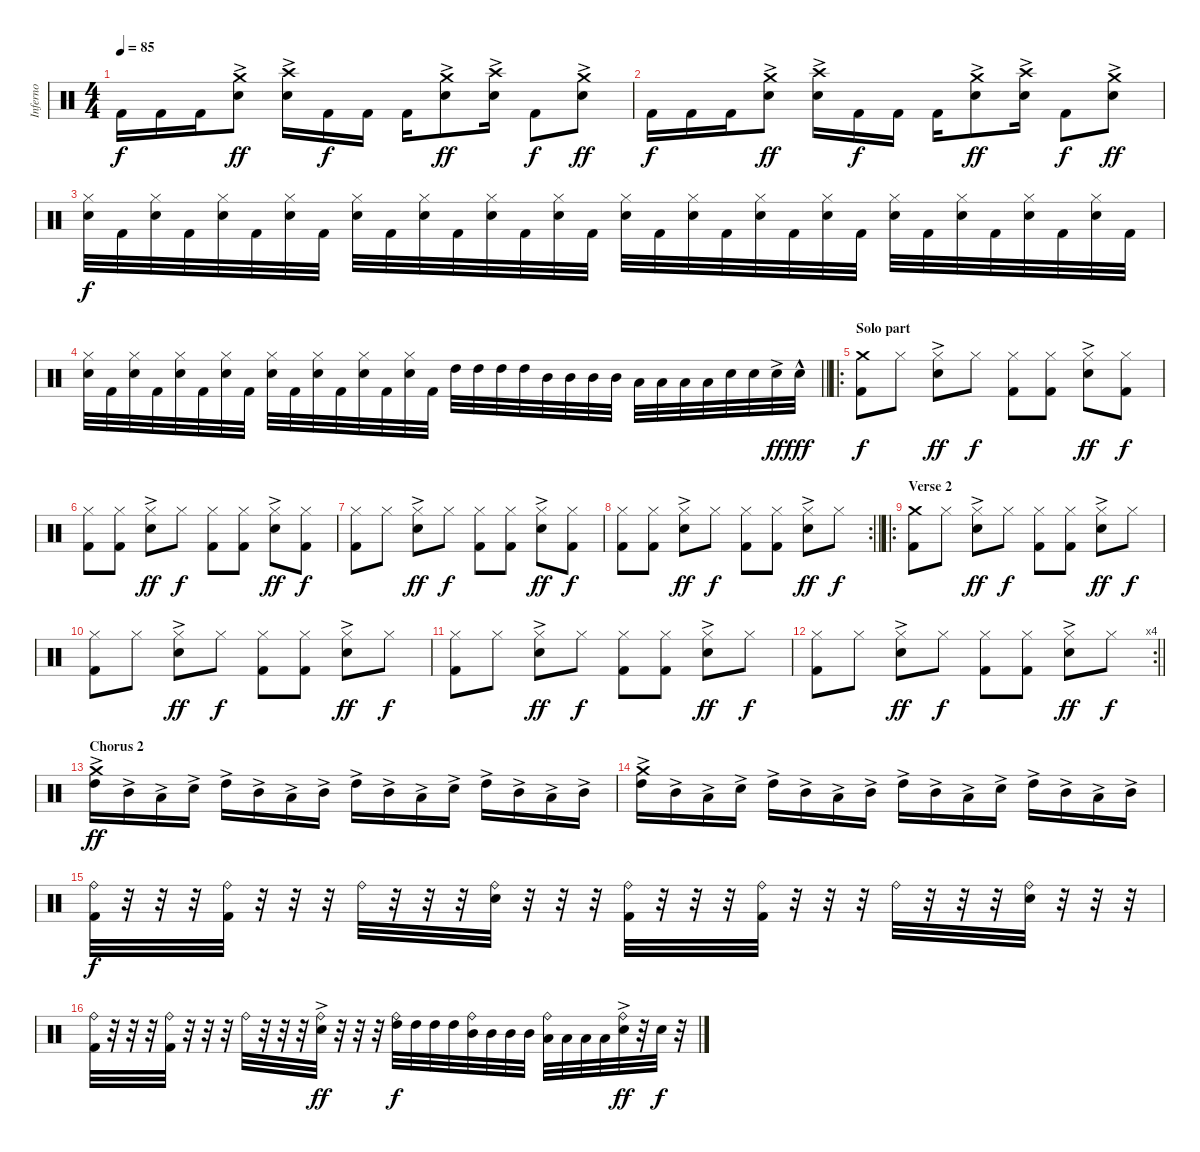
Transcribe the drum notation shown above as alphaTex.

\track ("Inferno" "Inferno") {instrument percussion}
\staff {score}
\articulation defaults
\ts (4 4)
\tempo 85
\clef neutral
\ks c "Kick (hit) 2".16{dy f} "Kick (hit) 2".16 "Kick (hit) 2".16
("Crash medium (hit)" "Electric Snare (hit)"{ac}).8{dy ff} ("Crash high (hit)" "Electric Snare (hit)"{ac}).16 "Kick (hit) 2".16{dy f} "Kick (hit) 2".16 "Kick (hit) 2".16 ("Crash medium (hit)" "Electric Snare (hit)"{ac}).8{dy ff} ("Crash high (hit)" "Electric Snare (hit)"{ac}).16 "Kick (hit) 2".8{dy f} ("Crash medium (hit)" "Electric Snare (hit)"{ac}).8{dy ff} |
"Kick (hit) 2".16{dy f} "Kick (hit) 2".16 "Kick (hit) 2".16 ("Crash medium (hit)" "Electric Snare (hit)"{ac}).8{dy ff} ("Crash high (hit)" "Electric Snare (hit)"{ac}).16 "Kick (hit) 2".16{dy f} "Kick (hit) 2".16 "Kick (hit) 2".16 ("Crash medium (hit)" "Electric Snare (hit)"{ac}).8{dy ff} ("Crash high (hit)" "Electric Snare (hit)"{ac}).16 "Kick (hit) 2".8{dy f} ("Crash medium (hit)" "Electric Snare (hit)"{ac}).8{dy ff} |
("Hi-Hat (closed)" "Electric Snare (hit)").32{dy f} "Kick (hit) 2".32 ("Hi-Hat (closed)" "Electric Snare (hit)").32 "Kick (hit) 2".32 ("Hi-Hat (closed)" "Electric Snare (hit)").32 "Kick (hit) 2".32 ("Hi-Hat (closed)" "Electric Snare (hit)").32 "Kick (hit) 2".32 ("Hi-Hat (closed)" "Electric Snare (hit)").32 "Kick (hit) 2".32 ("Hi-Hat (closed)" "Electric Snare (hit)").32 "Kick (hit) 2".32 ("Hi-Hat (closed)" "Electric Snare (hit)").32 "Kick (hit) 2".32 ("Hi-Hat (closed)" "Electric Snare (hit)").32 "Kick (hit) 2".32 ("Hi-Hat (closed)" "Electric Snare (hit)").32 "Kick (hit) 2".32 ("Hi-Hat (closed)" "Electric Snare (hit)").32 "Kick (hit) 2".32 ("Hi-Hat (closed)" "Electric Snare (hit)").32 "Kick (hit) 2".32 ("Hi-Hat (closed)" "Electric Snare (hit)").32 "Kick (hit) 2".32 ("Hi-Hat (closed)" "Electric Snare (hit)").32 "Kick (hit) 2".32 ("Hi-Hat (closed)" "Electric Snare (hit)").32 "Kick (hit) 2".32 ("Hi-Hat (closed)" "Electric Snare (hit)").32 "Kick (hit) 2".32 ("Hi-Hat (closed)" "Electric Snare (hit)").32 "Kick (hit) 2".32 |
\barLineRight lightlight
("Hi-Hat (closed)" "Electric Snare (hit)").32 "Kick (hit) 2".32 ("Hi-Hat (closed)" "Electric Snare (hit)").32 "Kick (hit) 2".32 ("Hi-Hat (closed)" "Electric Snare (hit)").32 "Kick (hit) 2".32 ("Hi-Hat (closed)" "Electric Snare (hit)").32 "Kick (hit) 2".32 ("Hi-Hat (closed)" "Electric Snare (hit)").32 "Kick (hit) 2".32 ("Hi-Hat (closed)" "Electric Snare (hit)").32 "Kick (hit) 2".32 ("Hi-Hat (closed)" "Electric Snare (hit)").32 "Kick (hit) 2".32 ("Hi-Hat (closed)" "Electric Snare (hit)").32 "Kick (hit) 2".32 "High Tom (hit)".32 "High Tom (hit)".32 "High Tom (hit)".32 "High Tom (hit)".32 "Mid Tom (hit)".32 "Mid Tom (hit)".32 "Mid Tom (hit)".32 "Mid Tom (hit)".32 "Low Tom (hit)".32 "Low Tom (hit)".32 "Low Tom (hit)".32 "Low Tom (hit)".32 "Electric Snare (hit)".32 "Electric Snare (hit)".32 "Electric Snare (hit)"{ac}.32{dy ff} "Electric Snare (hit)"{hac}.32{dy fff} |
\ro
\section ("" "Solo part")
("Crash medium (hit)" "Kick (hit) 2").8{dy f} "Hi-Hat (closed)".8 ("Hi-Hat (closed)" "Electric Snare (hit)"{ac}).8{dy ff} "Hi-Hat (closed)".8{dy f} ("Hi-Hat (closed)" "Kick (hit) 2").8 ("Hi-Hat (closed)" "Kick (hit) 2").8 ("Hi-Hat (closed)" "Electric Snare (hit)"{ac}).8{dy ff} ("Hi-Hat (closed)" "Kick (hit) 2").8{dy f} |
("Hi-Hat (closed)" "Kick (hit) 2").8 ("Hi-Hat (closed)" "Kick (hit) 2").8 ("Hi-Hat (closed)" "Electric Snare (hit)"{ac}).8{dy ff} "Hi-Hat (closed)".8{dy f} ("Hi-Hat (closed)" "Kick (hit) 2").8 ("Hi-Hat (closed)" "Kick (hit) 2").8 ("Hi-Hat (closed)" "Electric Snare (hit)"{ac}).8{dy ff} ("Hi-Hat (closed)" "Kick (hit) 2").8{dy f} |
("Hi-Hat (closed)" "Kick (hit) 2").8 "Hi-Hat (closed)".8 ("Hi-Hat (closed)" "Electric Snare (hit)"{ac}).8{dy ff} "Hi-Hat (closed)".8{dy f} ("Hi-Hat (closed)" "Kick (hit) 2").8 ("Hi-Hat (closed)" "Kick (hit) 2").8 ("Hi-Hat (closed)" "Electric Snare (hit)"{ac}).8{dy ff} ("Hi-Hat (closed)" "Kick (hit) 2").8{dy f} |
\rc 2
\barLineRight lightlight
("Hi-Hat (closed)" "Kick (hit) 2").8 ("Hi-Hat (closed)" "Kick (hit) 2").8 ("Hi-Hat (closed)" "Electric Snare (hit)"{ac}).8{dy ff} "Hi-Hat (closed)".8{dy f} ("Hi-Hat (closed)" "Kick (hit) 2").8 ("Hi-Hat (closed)" "Kick (hit) 2").8 ("Hi-Hat (closed)" "Electric Snare (hit)"{ac}).8{dy ff} "Hi-Hat (closed)".8{dy f} |
\ro
\section ("" "Verse 2")
("Crash medium (hit)" "Kick (hit) 2").8 "Hi-Hat (closed)".8 ("Hi-Hat (closed)" "Electric Snare (hit)"{ac}).8{dy ff} "Hi-Hat (closed)".8{dy f} ("Hi-Hat (closed)" "Kick (hit) 2").8 ("Hi-Hat (closed)" "Kick (hit) 2").8 ("Hi-Hat (closed)" "Electric Snare (hit)"{ac}).8{dy ff} "Hi-Hat (closed)".8{dy f} |
("Hi-Hat (closed)" "Kick (hit) 2").8 "Hi-Hat (closed)".8 ("Hi-Hat (closed)" "Electric Snare (hit)"{ac}).8{dy ff} "Hi-Hat (closed)".8{dy f} ("Hi-Hat (closed)" "Kick (hit) 2").8 ("Hi-Hat (closed)" "Kick (hit) 2").8 ("Hi-Hat (closed)" "Electric Snare (hit)"{ac}).8{dy ff} "Hi-Hat (closed)".8{dy f} |
("Hi-Hat (closed)" "Kick (hit) 2").8 "Hi-Hat (closed)".8 ("Hi-Hat (closed)" "Electric Snare (hit)"{ac}).8{dy ff} "Hi-Hat (closed)".8{dy f} ("Hi-Hat (closed)" "Kick (hit) 2").8 ("Hi-Hat (closed)" "Kick (hit) 2").8 ("Hi-Hat (closed)" "Electric Snare (hit)"{ac}).8{dy ff} "Hi-Hat (closed)".8{dy f} |
\rc 4
\barLineRight lightlight
("Hi-Hat (closed)" "Kick (hit) 2").8 "Hi-Hat (closed)".8 ("Hi-Hat (closed)" "Electric Snare (hit)"{ac}).8{dy ff} "Hi-Hat (closed)".8{dy f} ("Hi-Hat (closed)" "Kick (hit) 2").8 ("Hi-Hat (closed)" "Kick (hit) 2").8 ("Hi-Hat (closed)" "Electric Snare (hit)"{ac}).8{dy ff} "Hi-Hat (closed)".8{dy f} |
\section ("" "Chorus 2")
("High Tom (hit)"{ac} "Crash medium (hit)").16{dy ff} "Mid Tom (hit)"{ac}.16 "Low Tom (hit)"{ac}.16 "Electric Snare (hit)"{ac}.16 "High Tom (hit)"{ac}.16 "Mid Tom (hit)"{ac}.16 "Low Tom (hit)"{ac}.16 "Mid Tom (hit)"{ac}.16 "High Tom (hit)"{ac}.16 "Mid Tom (hit)"{ac}.16 "Low Tom (hit)"{ac}.16 "Electric Snare (hit)"{ac}.16 "High Tom (hit)"{ac}.16 "Mid Tom (hit)"{ac}.16 "Low Tom (hit)"{ac}.16 "Mid Tom (hit)"{ac}.16 |
("High Tom (hit)"{ac} "Crash medium (hit)").16 "Mid Tom (hit)"{ac}.16 "Low Tom (hit)"{ac}.16 "Electric Snare (hit)"{ac}.16 "High Tom (hit)"{ac}.16 "Mid Tom (hit)"{ac}.16 "Low Tom (hit)"{ac}.16 "Mid Tom (hit)"{ac}.16 "High Tom (hit)"{ac}.16 "Mid Tom (hit)"{ac}.16 "Low Tom (hit)"{ac}.16 "Electric Snare (hit)"{ac}.16 "High Tom (hit)"{ac}.16 "Mid Tom (hit)"{ac}.16 "Low Tom (hit)"{ac}.16 "Mid Tom (hit)"{ac}.16 |
("Kick (hit) 2" "Ride (bell)").32{dy f} r.32 r.32 r.32 ("Kick (hit) 2" "Ride (bell)").32 r.32 r.32 r.32 "Ride (bell)".32 r.32 r.32 r.32 ("Electric Snare (hit)" "Ride (bell)").32 r.32 r.32 r.32 ("Kick (hit) 2" "Ride (bell)").32 r.32 r.32 r.32 ("Kick (hit) 2" "Ride (bell)").32 r.32 r.32 r.32 "Ride (bell)".32 r.32 r.32 r.32 ("Electric Snare (hit)" "Ride (bell)").32 r.32 r.32 r.32 |
("Kick (hit) 2" "Ride (bell)").32 r.32 r.32 r.32 ("Kick (hit) 2" "Ride (bell)").32 r.32 r.32 r.32 "Ride (bell)".32 r.32 r.32 r.32 ("Electric Snare (hit)"{ac} "Ride (bell)").32{dy ff} r.32 r.32 r.32 ("High Tom (hit)" "Ride (bell)").32{dy f} "High Tom (hit)".32 "High Tom (hit)".32 "High Tom (hit)".32 ("Mid Tom (hit)" "Ride (bell)").32 "Mid Tom (hit)".32 "Mid Tom (hit)".32 "Mid Tom (hit)".32 ("Low Tom (hit)" "Ride (bell)").32 "Low Tom (hit)".32 "Low Tom (hit)".32 "Low Tom (hit)".32 ("Electric Snare (hit)"{ac} "Ride (bell)").32{dy ff} r.32 "Electric Snare (hit)".32{dy f} r.32
